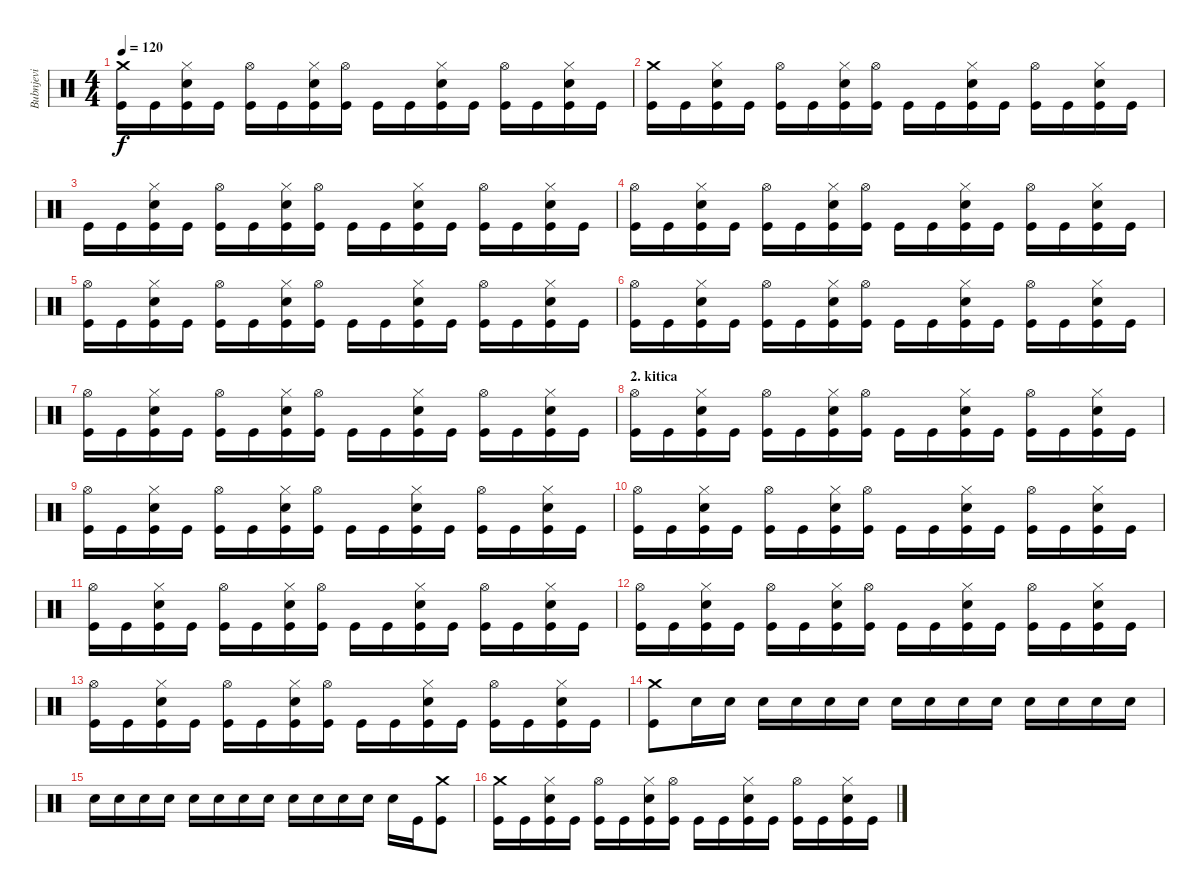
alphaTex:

\track ("Bubnjevi" "Bubnjevi") {instrument percussion}
\staff {score}
\articulation defaults
\ts (4 4)
\tempo 120
\clef neutral
\ks c
("Crash medium (hit)" "Kick (hit)").16{dy f} "Kick (hit)".16 ("Electric Snare (hit)" "Hi-Hat (closed)" "Kick (hit)").16 "Kick (hit)".16 ("Hi-Hat (open)" "Kick (hit)").16 "Kick (hit)".16 ("Electric Snare (hit)" "Hi-Hat (closed)" "Kick (hit)").16 ("Hi-Hat (open)" "Kick (hit)").16 "Kick (hit)".16 "Kick (hit)".16 ("Electric Snare (hit)" "Hi-Hat (closed)" "Kick (hit)").16 "Kick (hit)".16 ("Hi-Hat (open)" "Kick (hit)").16 "Kick (hit)".16 ("Electric Snare (hit)" "Hi-Hat (closed)" "Kick (hit)").16 "Kick (hit)".16 |
("Crash medium (hit)" "Kick (hit)").16 "Kick (hit)".16 ("Electric Snare (hit)" "Hi-Hat (closed)" "Kick (hit)").16 "Kick (hit)".16 ("Hi-Hat (open)" "Kick (hit)").16 "Kick (hit)".16 ("Electric Snare (hit)" "Hi-Hat (closed)" "Kick (hit)").16 ("Hi-Hat (open)" "Kick (hit)").16 "Kick (hit)".16 "Kick (hit)".16 ("Electric Snare (hit)" "Hi-Hat (closed)" "Kick (hit)").16 "Kick (hit)".16 ("Hi-Hat (open)" "Kick (hit)").16 "Kick (hit)".16 ("Electric Snare (hit)" "Hi-Hat (closed)" "Kick (hit)").16 "Kick (hit)".16 |
"Kick (hit)".16 "Kick (hit)".16 ("Electric Snare (hit)" "Hi-Hat (closed)" "Kick (hit)").16 "Kick (hit)".16 ("Hi-Hat (open)" "Kick (hit)").16 "Kick (hit)".16 ("Electric Snare (hit)" "Hi-Hat (closed)" "Kick (hit)").16 ("Hi-Hat (open)" "Kick (hit)").16 "Kick (hit)".16 "Kick (hit)".16 ("Electric Snare (hit)" "Hi-Hat (closed)" "Kick (hit)").16 "Kick (hit)".16 ("Hi-Hat (open)" "Kick (hit)").16 "Kick (hit)".16 ("Electric Snare (hit)" "Hi-Hat (closed)" "Kick (hit)").16 "Kick (hit)".16 |
("Hi-Hat (open)" "Kick (hit)").16 "Kick (hit)".16 ("Electric Snare (hit)" "Hi-Hat (closed)" "Kick (hit)").16 "Kick (hit)".16 ("Hi-Hat (open)" "Kick (hit)").16 "Kick (hit)".16 ("Electric Snare (hit)" "Hi-Hat (closed)" "Kick (hit)").16 ("Hi-Hat (open)" "Kick (hit)").16 "Kick (hit)".16 "Kick (hit)".16 ("Electric Snare (hit)" "Hi-Hat (closed)" "Kick (hit)").16 "Kick (hit)".16 ("Hi-Hat (open)" "Kick (hit)").16 "Kick (hit)".16 ("Electric Snare (hit)" "Hi-Hat (closed)" "Kick (hit)").16 "Kick (hit)".16 |
("Hi-Hat (open)" "Kick (hit)").16 "Kick (hit)".16 ("Electric Snare (hit)" "Hi-Hat (closed)" "Kick (hit)").16 "Kick (hit)".16 ("Hi-Hat (open)" "Kick (hit)").16 "Kick (hit)".16 ("Electric Snare (hit)" "Hi-Hat (closed)" "Kick (hit)").16 ("Hi-Hat (open)" "Kick (hit)").16 "Kick (hit)".16 "Kick (hit)".16 ("Electric Snare (hit)" "Hi-Hat (closed)" "Kick (hit)").16 "Kick (hit)".16 ("Hi-Hat (open)" "Kick (hit)").16 "Kick (hit)".16 ("Electric Snare (hit)" "Hi-Hat (closed)" "Kick (hit)").16 "Kick (hit)".16 |
("Hi-Hat (open)" "Kick (hit)").16 "Kick (hit)".16 ("Electric Snare (hit)" "Hi-Hat (closed)" "Kick (hit)").16 "Kick (hit)".16 ("Hi-Hat (open)" "Kick (hit)").16 "Kick (hit)".16 ("Electric Snare (hit)" "Hi-Hat (closed)" "Kick (hit)").16 ("Hi-Hat (open)" "Kick (hit)").16 "Kick (hit)".16 "Kick (hit)".16 ("Electric Snare (hit)" "Hi-Hat (closed)" "Kick (hit)").16 "Kick (hit)".16 ("Hi-Hat (open)" "Kick (hit)").16 "Kick (hit)".16 ("Electric Snare (hit)" "Hi-Hat (closed)" "Kick (hit)").16 "Kick (hit)".16 |
("Hi-Hat (open)" "Kick (hit)").16 "Kick (hit)".16 ("Electric Snare (hit)" "Hi-Hat (closed)" "Kick (hit)").16 "Kick (hit)".16 ("Hi-Hat (open)" "Kick (hit)").16 "Kick (hit)".16 ("Electric Snare (hit)" "Hi-Hat (closed)" "Kick (hit)").16 ("Hi-Hat (open)" "Kick (hit)").16 "Kick (hit)".16 "Kick (hit)".16 ("Electric Snare (hit)" "Hi-Hat (closed)" "Kick (hit)").16 "Kick (hit)".16 ("Hi-Hat (open)" "Kick (hit)").16 "Kick (hit)".16 ("Electric Snare (hit)" "Hi-Hat (closed)" "Kick (hit)").16 "Kick (hit)".16 |
\section ("" "2. kitica")
("Hi-Hat (open)" "Kick (hit)").16 "Kick (hit)".16 ("Electric Snare (hit)" "Hi-Hat (closed)" "Kick (hit)").16 "Kick (hit)".16 ("Hi-Hat (open)" "Kick (hit)").16 "Kick (hit)".16 ("Electric Snare (hit)" "Hi-Hat (closed)" "Kick (hit)").16 ("Hi-Hat (open)" "Kick (hit)").16 "Kick (hit)".16 "Kick (hit)".16 ("Electric Snare (hit)" "Hi-Hat (closed)" "Kick (hit)").16 "Kick (hit)".16 ("Hi-Hat (open)" "Kick (hit)").16 "Kick (hit)".16 ("Electric Snare (hit)" "Hi-Hat (closed)" "Kick (hit)").16 "Kick (hit)".16 |
("Hi-Hat (open)" "Kick (hit)").16 "Kick (hit)".16 ("Electric Snare (hit)" "Hi-Hat (closed)" "Kick (hit)").16 "Kick (hit)".16 ("Hi-Hat (open)" "Kick (hit)").16 "Kick (hit)".16 ("Electric Snare (hit)" "Hi-Hat (closed)" "Kick (hit)").16 ("Hi-Hat (open)" "Kick (hit)").16 "Kick (hit)".16 "Kick (hit)".16 ("Electric Snare (hit)" "Hi-Hat (closed)" "Kick (hit)").16 "Kick (hit)".16 ("Hi-Hat (open)" "Kick (hit)").16 "Kick (hit)".16 ("Electric Snare (hit)" "Hi-Hat (closed)" "Kick (hit)").16 "Kick (hit)".16 |
("Hi-Hat (open)" "Kick (hit)").16 "Kick (hit)".16 ("Electric Snare (hit)" "Hi-Hat (closed)" "Kick (hit)").16 "Kick (hit)".16 ("Hi-Hat (open)" "Kick (hit)").16 "Kick (hit)".16 ("Electric Snare (hit)" "Hi-Hat (closed)" "Kick (hit)").16 ("Hi-Hat (open)" "Kick (hit)").16 "Kick (hit)".16 "Kick (hit)".16 ("Electric Snare (hit)" "Hi-Hat (closed)" "Kick (hit)").16 "Kick (hit)".16 ("Hi-Hat (open)" "Kick (hit)").16 "Kick (hit)".16 ("Electric Snare (hit)" "Hi-Hat (closed)" "Kick (hit)").16 "Kick (hit)".16 |
("Hi-Hat (open)" "Kick (hit)").16 "Kick (hit)".16 ("Electric Snare (hit)" "Hi-Hat (closed)" "Kick (hit)").16 "Kick (hit)".16 ("Hi-Hat (open)" "Kick (hit)").16 "Kick (hit)".16 ("Electric Snare (hit)" "Hi-Hat (closed)" "Kick (hit)").16 ("Hi-Hat (open)" "Kick (hit)").16 "Kick (hit)".16 "Kick (hit)".16 ("Electric Snare (hit)" "Hi-Hat (closed)" "Kick (hit)").16 "Kick (hit)".16 ("Hi-Hat (open)" "Kick (hit)").16 "Kick (hit)".16 ("Electric Snare (hit)" "Hi-Hat (closed)" "Kick (hit)").16 "Kick (hit)".16 |
("Hi-Hat (open)" "Kick (hit)").16 "Kick (hit)".16 ("Electric Snare (hit)" "Hi-Hat (closed)" "Kick (hit)").16 "Kick (hit)".16 ("Hi-Hat (open)" "Kick (hit)").16 "Kick (hit)".16 ("Electric Snare (hit)" "Hi-Hat (closed)" "Kick (hit)").16 ("Hi-Hat (open)" "Kick (hit)").16 "Kick (hit)".16 "Kick (hit)".16 ("Electric Snare (hit)" "Hi-Hat (closed)" "Kick (hit)").16 "Kick (hit)".16 ("Hi-Hat (open)" "Kick (hit)").16 "Kick (hit)".16 ("Electric Snare (hit)" "Hi-Hat (closed)" "Kick (hit)").16 "Kick (hit)".16 |
("Hi-Hat (open)" "Kick (hit)").16 "Kick (hit)".16 ("Electric Snare (hit)" "Hi-Hat (closed)" "Kick (hit)").16 "Kick (hit)".16 ("Hi-Hat (open)" "Kick (hit)").16 "Kick (hit)".16 ("Electric Snare (hit)" "Hi-Hat (closed)" "Kick (hit)").16 ("Hi-Hat (open)" "Kick (hit)").16 "Kick (hit)".16 "Kick (hit)".16 ("Electric Snare (hit)" "Hi-Hat (closed)" "Kick (hit)").16 "Kick (hit)".16 ("Hi-Hat (open)" "Kick (hit)").16 "Kick (hit)".16 ("Electric Snare (hit)" "Hi-Hat (closed)" "Kick (hit)").16 "Kick (hit)".16 |
("Crash medium (hit)" "Kick (hit)").8 "Electric Snare (hit)".16 "Electric Snare (hit)".16 "Electric Snare (hit)".16 "Electric Snare (hit)".16 "Electric Snare (hit)".16 "Electric Snare (hit)".16 "Electric Snare (hit)".16 "Electric Snare (hit)".16 "Electric Snare (hit)".16 "Electric Snare (hit)".16 "Electric Snare (hit)".16 "Electric Snare (hit)".16 "Electric Snare (hit)".16 "Electric Snare (hit)".16 |
"Electric Snare (hit)".16 "Electric Snare (hit)".16 "Electric Snare (hit)".16 "Electric Snare (hit)".16 "Electric Snare (hit)".16 "Electric Snare (hit)".16 "Electric Snare (hit)".16 "Electric Snare (hit)".16 "Electric Snare (hit)".16 "Electric Snare (hit)".16 "Electric Snare (hit)".16 "Electric Snare (hit)".16 "Electric Snare (hit)".16 "Kick (hit)".16 ("Crash medium (hit)" "Kick (hit)").8 |
("Crash medium (hit)" "Kick (hit)").16 "Kick (hit)".16 ("Electric Snare (hit)" "Hi-Hat (closed)" "Kick (hit)").16 "Kick (hit)".16 ("Hi-Hat (open)" "Kick (hit)").16 "Kick (hit)".16 ("Electric Snare (hit)" "Hi-Hat (closed)" "Kick (hit)").16 ("Hi-Hat (open)" "Kick (hit)").16 "Kick (hit)".16 "Kick (hit)".16 ("Electric Snare (hit)" "Hi-Hat (closed)" "Kick (hit)").16 "Kick (hit)".16 ("Hi-Hat (open)" "Kick (hit)").16 "Kick (hit)".16 ("Electric Snare (hit)" "Hi-Hat (closed)" "Kick (hit)").16 "Kick (hit)".16
